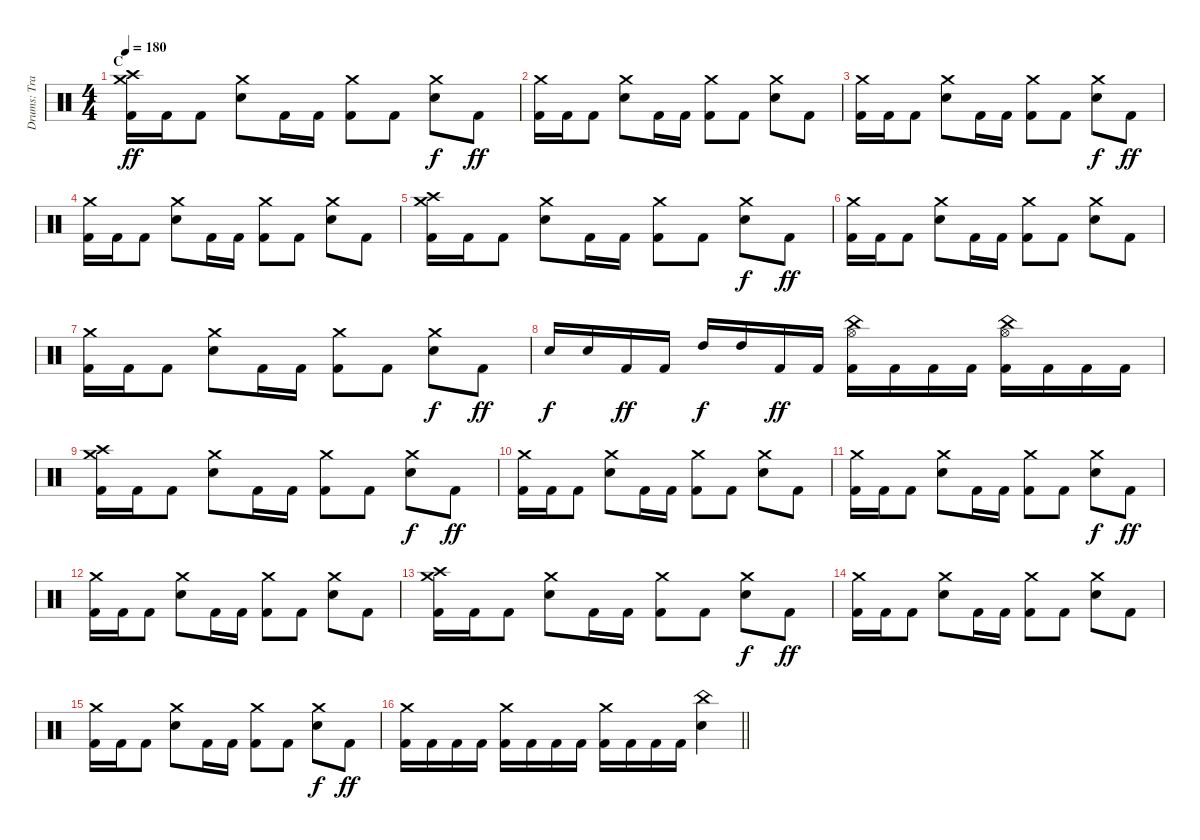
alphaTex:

\track ("Drums: Travis Clarke" "Drums: Tra") {instrument percussion}
\staff {score}
\articulation defaults
\ts (4 4)
\section ("" "C")
\tempo 180
\clef neutral
\ks c
("Kick (hit) 2" "Crash high (hit)" "Crash medium (hit)").16{dy ff} "Kick (hit) 2".16 "Kick (hit) 2".8 ("Snare (hit) 2" "Crash medium (hit)").8 "Kick (hit) 2".16 "Kick (hit) 2".16 ("Kick (hit) 2" "Crash medium (hit)").8 "Kick (hit) 2".8 ("Snare (hit) 2" "Crash medium (hit)").8{dy f} "Kick (hit) 2".8{dy ff} |
("Kick (hit) 2" "Crash medium (hit)").16 "Kick (hit) 2".16 "Kick (hit) 2".8 ("Snare (hit) 2" "Crash medium (hit)").8 "Kick (hit) 2".16 "Kick (hit) 2".16 ("Kick (hit) 2" "Crash medium (hit)").8 "Kick (hit) 2".8 ("Snare (hit) 2" "Crash medium (hit)").8 "Kick (hit) 2".8 |
("Kick (hit) 2" "Crash medium (hit)").16 "Kick (hit) 2".16 "Kick (hit) 2".8 ("Snare (hit) 2" "Crash medium (hit)").8 "Kick (hit) 2".16 "Kick (hit) 2".16 ("Kick (hit) 2" "Crash medium (hit)").8 "Kick (hit) 2".8 ("Snare (hit) 2" "Crash medium (hit)").8{dy f} "Kick (hit) 2".8{dy ff} |
("Kick (hit) 2" "Crash medium (hit)").16 "Kick (hit) 2".16 "Kick (hit) 2".8 ("Snare (hit) 2" "Crash medium (hit)").8 "Kick (hit) 2".16 "Kick (hit) 2".16 ("Kick (hit) 2" "Crash medium (hit)").8 "Kick (hit) 2".8 ("Snare (hit) 2" "Crash medium (hit)").8 "Kick (hit) 2".8 |
("Kick (hit) 2" "Crash high (hit)" "Crash medium (hit)").16 "Kick (hit) 2".16 "Kick (hit) 2".8 ("Snare (hit) 2" "Crash medium (hit)").8 "Kick (hit) 2".16 "Kick (hit) 2".16 ("Kick (hit) 2" "Crash medium (hit)").8 "Kick (hit) 2".8 ("Snare (hit) 2" "Crash medium (hit)").8{dy f} "Kick (hit) 2".8{dy ff} |
("Kick (hit) 2" "Crash medium (hit)").16 "Kick (hit) 2".16 "Kick (hit) 2".8 ("Snare (hit) 2" "Crash medium (hit)").8 "Kick (hit) 2".16 "Kick (hit) 2".16 ("Kick (hit) 2" "Crash medium (hit)").8 "Kick (hit) 2".8 ("Snare (hit) 2" "Crash medium (hit)").8 "Kick (hit) 2".8 |
("Kick (hit) 2" "Crash medium (hit)").16 "Kick (hit) 2".16 "Kick (hit) 2".8 ("Snare (hit) 2" "Crash medium (hit)").8 "Kick (hit) 2".16 "Kick (hit) 2".16 ("Kick (hit) 2" "Crash medium (hit)").8 "Kick (hit) 2".8 ("Snare (hit) 2" "Crash medium (hit)").8{dy f} "Kick (hit) 2".8{dy ff} |
"Snare (hit) 2".16{dy f} "Snare (hit) 2".16 "Kick (hit) 2".16{dy ff} "Kick (hit) 2".16 "High Tom (hit)".16{dy f} "High Tom (hit)".16 "Kick (hit) 2".16{dy ff} "Kick (hit) 2".16 ("Kick (hit) 2" "Hi-Hat (open)" "China (hit)").16 "Kick (hit) 2".16 "Kick (hit) 2".16 "Kick (hit) 2".16 ("Kick (hit) 2" "Hi-Hat (open)" "China (hit)").16 "Kick (hit) 2".16 "Kick (hit) 2".16 "Kick (hit) 2".16 |
("Kick (hit) 2" "Crash high (hit)" "Crash medium (hit)").16 "Kick (hit) 2".16 "Kick (hit) 2".8 ("Snare (hit) 2" "Crash medium (hit)").8 "Kick (hit) 2".16 "Kick (hit) 2".16 ("Kick (hit) 2" "Crash medium (hit)").8 "Kick (hit) 2".8 ("Snare (hit) 2" "Crash medium (hit)").8{dy f} "Kick (hit) 2".8{dy ff} |
("Kick (hit) 2" "Crash medium (hit)").16 "Kick (hit) 2".16 "Kick (hit) 2".8 ("Snare (hit) 2" "Crash medium (hit)").8 "Kick (hit) 2".16 "Kick (hit) 2".16 ("Kick (hit) 2" "Crash medium (hit)").8 "Kick (hit) 2".8 ("Snare (hit) 2" "Crash medium (hit)").8 "Kick (hit) 2".8 |
("Kick (hit) 2" "Crash medium (hit)").16 "Kick (hit) 2".16 "Kick (hit) 2".8 ("Snare (hit) 2" "Crash medium (hit)").8 "Kick (hit) 2".16 "Kick (hit) 2".16 ("Kick (hit) 2" "Crash medium (hit)").8 "Kick (hit) 2".8 ("Snare (hit) 2" "Crash medium (hit)").8{dy f} "Kick (hit) 2".8{dy ff} |
("Kick (hit) 2" "Crash medium (hit)").16 "Kick (hit) 2".16 "Kick (hit) 2".8 ("Snare (hit) 2" "Crash medium (hit)").8 "Kick (hit) 2".16 "Kick (hit) 2".16 ("Kick (hit) 2" "Crash medium (hit)").8 "Kick (hit) 2".8 ("Snare (hit) 2" "Crash medium (hit)").8 "Kick (hit) 2".8 |
("Kick (hit) 2" "Crash high (hit)" "Crash medium (hit)").16 "Kick (hit) 2".16 "Kick (hit) 2".8 ("Snare (hit) 2" "Crash medium (hit)").8 "Kick (hit) 2".16 "Kick (hit) 2".16 ("Kick (hit) 2" "Crash medium (hit)").8 "Kick (hit) 2".8 ("Snare (hit) 2" "Crash medium (hit)").8{dy f} "Kick (hit) 2".8{dy ff} |
("Kick (hit) 2" "Crash medium (hit)").16 "Kick (hit) 2".16 "Kick (hit) 2".8 ("Snare (hit) 2" "Crash medium (hit)").8 "Kick (hit) 2".16 "Kick (hit) 2".16 ("Kick (hit) 2" "Crash medium (hit)").8 "Kick (hit) 2".8 ("Snare (hit) 2" "Crash medium (hit)").8 "Kick (hit) 2".8 |
("Kick (hit) 2" "Crash medium (hit)").16 "Kick (hit) 2".16 "Kick (hit) 2".8 ("Snare (hit) 2" "Crash medium (hit)").8 "Kick (hit) 2".16 "Kick (hit) 2".16 ("Kick (hit) 2" "Crash medium (hit)").8 "Kick (hit) 2".8 ("Snare (hit) 2" "Crash medium (hit)").8{dy f} "Kick (hit) 2".8{dy ff} |
\barLineRight lightlight
("Kick (hit) 2" "Crash medium (hit)").16 "Kick (hit) 2".16 "Kick (hit) 2".16 "Kick (hit) 2".16 ("Kick (hit) 2" "Crash medium (hit)").16 "Kick (hit) 2".16 "Kick (hit) 2".16 "Kick (hit) 2".16 ("Kick (hit) 2" "Crash medium (hit)").16 "Kick (hit) 2".16 "Kick (hit) 2".16 "Kick (hit) 2".16 ("Snare (hit) 2" "China (hit)").4
